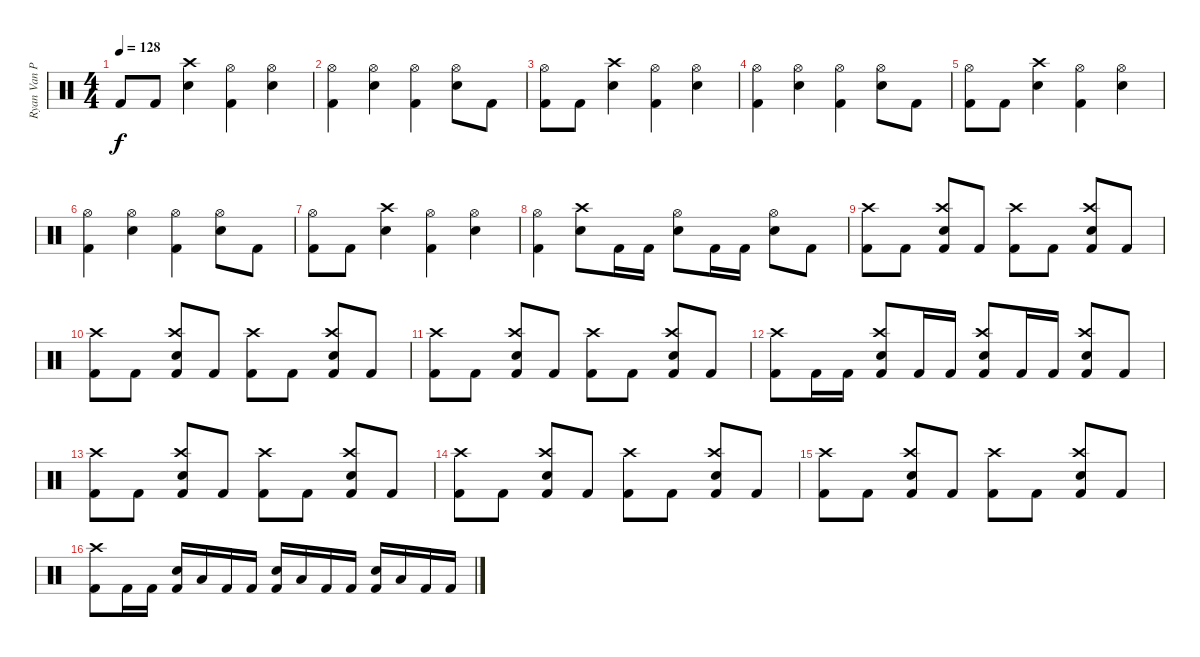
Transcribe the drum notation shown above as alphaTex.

\track ("Ryan Van Poederooyen" "Ryan Van P") {instrument percussion}
\staff {score}
\articulation defaults
\ts (4 4)
\tempo 128
\clef neutral
\ks c "Kick (hit) 2".8{dy f} "Kick (hit) 2".8
("Crash high (hit)" "Electric Snare (hit)").4 ("Hi-Hat (open)" "Kick (hit) 2").4 ("Hi-Hat (open)" "Electric Snare (hit)").4 |
("Hi-Hat (open)" "Kick (hit) 2").4 ("Hi-Hat (open)" "Electric Snare (hit)").4 ("Hi-Hat (open)" "Kick (hit) 2").4 ("Hi-Hat (open)" "Electric Snare (hit)").8 "Kick (hit) 2".8 |
("Hi-Hat (open)" "Kick (hit) 2").8 "Kick (hit) 2".8 ("Crash high (hit)" "Electric Snare (hit)").4 ("Hi-Hat (open)" "Kick (hit) 2").4 ("Hi-Hat (open)" "Electric Snare (hit)").4 |
("Hi-Hat (open)" "Kick (hit) 2").4 ("Hi-Hat (open)" "Electric Snare (hit)").4 ("Hi-Hat (open)" "Kick (hit) 2").4 ("Hi-Hat (open)" "Electric Snare (hit)").8 "Kick (hit) 2".8 |
("Hi-Hat (open)" "Kick (hit) 2").8 "Kick (hit) 2".8 ("Crash high (hit)" "Electric Snare (hit)").4 ("Hi-Hat (open)" "Kick (hit) 2").4 ("Hi-Hat (open)" "Electric Snare (hit)").4 |
("Hi-Hat (open)" "Kick (hit) 2").4 ("Hi-Hat (open)" "Electric Snare (hit)").4 ("Hi-Hat (open)" "Kick (hit) 2").4 ("Hi-Hat (open)" "Electric Snare (hit)").8 "Kick (hit) 2".8 |
("Hi-Hat (open)" "Kick (hit) 2").8 "Kick (hit) 2".8 ("Crash high (hit)" "Electric Snare (hit)").4 ("Hi-Hat (open)" "Kick (hit) 2").4 ("Hi-Hat (open)" "Electric Snare (hit)").4 |
("Hi-Hat (open)" "Kick (hit) 2").4 ("Crash high (hit)" "Electric Snare (hit)").8 "Kick (hit) 2".16 "Kick (hit) 2".16 ("Hi-Hat (open)" "Electric Snare (hit)").8 "Kick (hit) 2".16 "Kick (hit) 2".16 ("Hi-Hat (open)" "Electric Snare (hit)").8 "Kick (hit) 2".8 |
("Crash high (hit)" "Kick (hit) 2").8 "Kick (hit) 2".8 ("Crash high (hit)" "Electric Snare (hit)" "Kick (hit) 2").8 "Kick (hit) 2".8 ("Crash high (hit)" "Kick (hit) 2").8 "Kick (hit) 2".8 ("Crash high (hit)" "Electric Snare (hit)" "Kick (hit) 2").8 "Kick (hit) 2".8 |
("Crash high (hit)" "Kick (hit) 2").8 "Kick (hit) 2".8 ("Crash high (hit)" "Electric Snare (hit)" "Kick (hit) 2").8 "Kick (hit) 2".8 ("Crash high (hit)" "Kick (hit) 2").8 "Kick (hit) 2".8 ("Crash high (hit)" "Electric Snare (hit)" "Kick (hit) 2").8 "Kick (hit) 2".8 |
("Crash high (hit)" "Kick (hit) 2").8 "Kick (hit) 2".8 ("Crash high (hit)" "Electric Snare (hit)" "Kick (hit) 2").8 "Kick (hit) 2".8 ("Crash high (hit)" "Kick (hit) 2").8 "Kick (hit) 2".8 ("Crash high (hit)" "Electric Snare (hit)" "Kick (hit) 2").8 "Kick (hit) 2".8 |
("Crash high (hit)" "Kick (hit) 2").8 "Kick (hit) 2".16 "Kick (hit) 2".16 ("Crash high (hit)" "Electric Snare (hit)" "Kick (hit) 2").8 "Kick (hit) 2".16 "Kick (hit) 2".16 ("Crash high (hit)" "Electric Snare (hit)" "Kick (hit) 2").8 "Kick (hit) 2".16 "Kick (hit) 2".16 ("Crash high (hit)" "Electric Snare (hit)" "Kick (hit) 2").8 "Kick (hit) 2".8 |
("Crash high (hit)" "Kick (hit) 2").8 "Kick (hit) 2".8 ("Crash high (hit)" "Electric Snare (hit)" "Kick (hit) 2").8 "Kick (hit) 2".8 ("Crash high (hit)" "Kick (hit) 2").8 "Kick (hit) 2".8 ("Crash high (hit)" "Electric Snare (hit)" "Kick (hit) 2").8 "Kick (hit) 2".8 |
("Crash high (hit)" "Kick (hit) 2").8 "Kick (hit) 2".8 ("Crash high (hit)" "Electric Snare (hit)" "Kick (hit) 2").8 "Kick (hit) 2".8 ("Crash high (hit)" "Kick (hit) 2").8 "Kick (hit) 2".8 ("Crash high (hit)" "Electric Snare (hit)" "Kick (hit) 2").8 "Kick (hit) 2".8 |
("Crash high (hit)" "Kick (hit) 2").8 "Kick (hit) 2".8 ("Crash high (hit)" "Electric Snare (hit)" "Kick (hit) 2").8 "Kick (hit) 2".8 ("Crash high (hit)" "Kick (hit) 2").8 "Kick (hit) 2".8 ("Crash high (hit)" "Electric Snare (hit)" "Kick (hit) 2").8 "Kick (hit) 2".8 |
("Crash high (hit)" "Kick (hit) 2").8 "Kick (hit) 2".16 "Kick (hit) 2".16 ("Electric Snare (hit)" "Kick (hit) 2").16 "Low Tom (hit)".16 "Kick (hit) 2".16 "Kick (hit) 2".16 ("Electric Snare (hit)" "Kick (hit) 2").16 "Low Tom (hit)".16 "Kick (hit) 2".16 "Kick (hit) 2".16 ("Electric Snare (hit)" "Kick (hit) 2").16 "Low Tom (hit)".16 "Kick (hit) 2".16 "Kick (hit) 2".16
